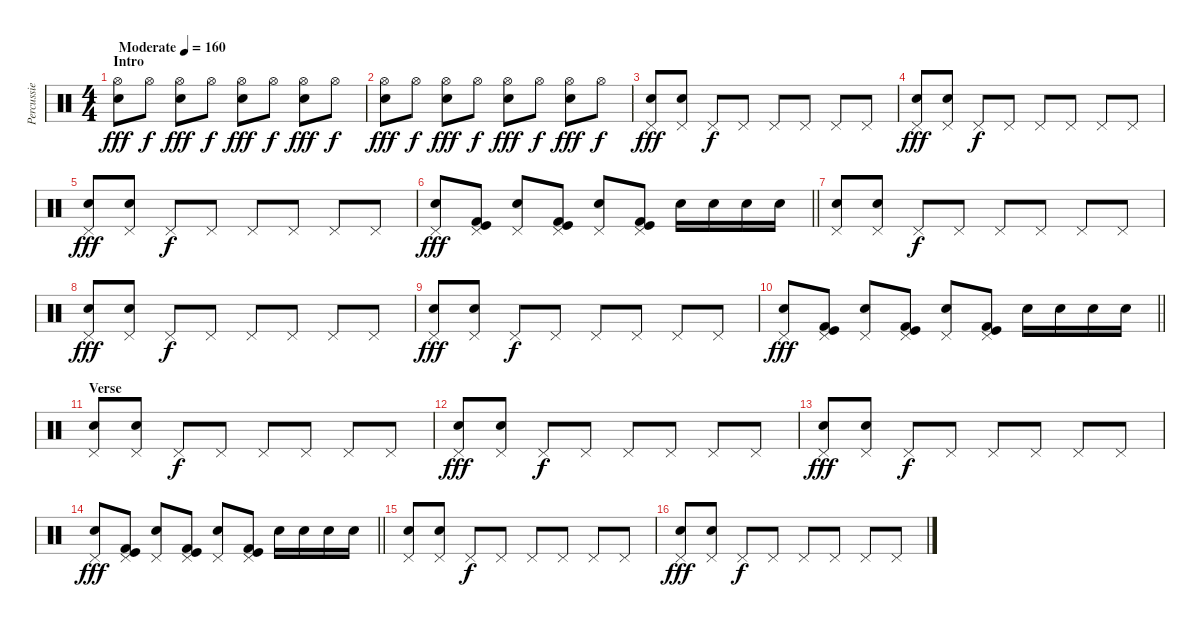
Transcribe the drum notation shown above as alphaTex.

\track ("Percussie" "Percussie") {instrument percussion}
\staff {score}
\articulation defaults
\ts (4 4)
\section ("" "Intro")
\tempo (160 "Moderate")
\clef neutral
\ks c
("Hi-Hat (open)" "Snare (hit) 2").8{dy fff} "Hi-Hat (open)".8{dy f} ("Hi-Hat (open)" "Snare (hit) 2").8{dy fff} "Hi-Hat (open)".8{dy f} ("Hi-Hat (open)" "Snare (hit) 2").8{dy fff} "Hi-Hat (open)".8{dy f} ("Hi-Hat (open)" "Snare (hit) 2").8{dy fff} "Hi-Hat (open)".8{dy f} |
("Hi-Hat (open)" "Snare (hit) 2").8{dy fff} "Hi-Hat (open)".8{dy f} ("Hi-Hat (open)" "Snare (hit) 2").8{dy fff} "Hi-Hat (open)".8{dy f} ("Hi-Hat (open)" "Snare (hit) 2").8{dy fff} "Hi-Hat (open)".8{dy f} ("Hi-Hat (open)" "Snare (hit) 2").8{dy fff} "Hi-Hat (open)".8{dy f} |
("Pedal Hi-Hat (hit)" "Snare (hit) 2").8{dy fff} ("Pedal Hi-Hat (hit)" "Snare (hit) 2").8 "Pedal Hi-Hat (hit)".8{dy f} "Pedal Hi-Hat (hit)".8 "Pedal Hi-Hat (hit)".8 "Pedal Hi-Hat (hit)".8 "Pedal Hi-Hat (hit)".8 "Pedal Hi-Hat (hit)".8 |
("Pedal Hi-Hat (hit)" "Snare (hit) 2").8{dy fff} ("Pedal Hi-Hat (hit)" "Snare (hit) 2").8 "Pedal Hi-Hat (hit)".8{dy f} "Pedal Hi-Hat (hit)".8 "Pedal Hi-Hat (hit)".8 "Pedal Hi-Hat (hit)".8 "Pedal Hi-Hat (hit)".8 "Pedal Hi-Hat (hit)".8 |
("Pedal Hi-Hat (hit)" "Snare (hit) 2").8{dy fff} ("Pedal Hi-Hat (hit)" "Snare (hit) 2").8 "Pedal Hi-Hat (hit)".8{dy f} "Pedal Hi-Hat (hit)".8 "Pedal Hi-Hat (hit)".8 "Pedal Hi-Hat (hit)".8 "Pedal Hi-Hat (hit)".8 "Pedal Hi-Hat (hit)".8 |
\barLineRight lightlight
("Pedal Hi-Hat (hit)" "Snare (hit) 2").8{dy fff} ("Pedal Hi-Hat (hit)" "Kick (hit)" "Kick (hit) 2").8 ("Pedal Hi-Hat (hit)" "Snare (hit) 2").8 ("Pedal Hi-Hat (hit)" "Kick (hit)" "Kick (hit) 2").8 ("Pedal Hi-Hat (hit)" "Snare (hit) 2").8 ("Pedal Hi-Hat (hit)" "Kick (hit)" "Kick (hit) 2").8 "Snare (hit) 2".16 "Snare (hit) 2".16 "Snare (hit) 2".16 "Snare (hit) 2".16 |
("Pedal Hi-Hat (hit)" "Snare (hit) 2").8 ("Pedal Hi-Hat (hit)" "Snare (hit) 2").8 "Pedal Hi-Hat (hit)".8{dy f} "Pedal Hi-Hat (hit)".8 "Pedal Hi-Hat (hit)".8 "Pedal Hi-Hat (hit)".8 "Pedal Hi-Hat (hit)".8 "Pedal Hi-Hat (hit)".8 |
("Pedal Hi-Hat (hit)" "Snare (hit) 2").8{dy fff} ("Pedal Hi-Hat (hit)" "Snare (hit) 2").8 "Pedal Hi-Hat (hit)".8{dy f} "Pedal Hi-Hat (hit)".8 "Pedal Hi-Hat (hit)".8 "Pedal Hi-Hat (hit)".8 "Pedal Hi-Hat (hit)".8 "Pedal Hi-Hat (hit)".8 |
("Pedal Hi-Hat (hit)" "Snare (hit) 2").8{dy fff} ("Pedal Hi-Hat (hit)" "Snare (hit) 2").8 "Pedal Hi-Hat (hit)".8{dy f} "Pedal Hi-Hat (hit)".8 "Pedal Hi-Hat (hit)".8 "Pedal Hi-Hat (hit)".8 "Pedal Hi-Hat (hit)".8 "Pedal Hi-Hat (hit)".8 |
\barLineRight lightlight
("Pedal Hi-Hat (hit)" "Snare (hit) 2").8{dy fff} ("Pedal Hi-Hat (hit)" "Kick (hit)" "Kick (hit) 2").8 ("Pedal Hi-Hat (hit)" "Snare (hit) 2").8 ("Pedal Hi-Hat (hit)" "Kick (hit)" "Kick (hit) 2").8 ("Pedal Hi-Hat (hit)" "Snare (hit) 2").8 ("Pedal Hi-Hat (hit)" "Kick (hit)" "Kick (hit) 2").8 "Snare (hit) 2".16 "Snare (hit) 2".16 "Snare (hit) 2".16 "Snare (hit) 2".16 |
\section ("" "Verse")
("Pedal Hi-Hat (hit)" "Snare (hit) 2").8 ("Pedal Hi-Hat (hit)" "Snare (hit) 2").8 "Pedal Hi-Hat (hit)".8{dy f} "Pedal Hi-Hat (hit)".8 "Pedal Hi-Hat (hit)".8 "Pedal Hi-Hat (hit)".8 "Pedal Hi-Hat (hit)".8 "Pedal Hi-Hat (hit)".8 |
("Pedal Hi-Hat (hit)" "Snare (hit) 2").8{dy fff} ("Pedal Hi-Hat (hit)" "Snare (hit) 2").8 "Pedal Hi-Hat (hit)".8{dy f} "Pedal Hi-Hat (hit)".8 "Pedal Hi-Hat (hit)".8 "Pedal Hi-Hat (hit)".8 "Pedal Hi-Hat (hit)".8 "Pedal Hi-Hat (hit)".8 |
("Pedal Hi-Hat (hit)" "Snare (hit) 2").8{dy fff} ("Pedal Hi-Hat (hit)" "Snare (hit) 2").8 "Pedal Hi-Hat (hit)".8{dy f} "Pedal Hi-Hat (hit)".8 "Pedal Hi-Hat (hit)".8 "Pedal Hi-Hat (hit)".8 "Pedal Hi-Hat (hit)".8 "Pedal Hi-Hat (hit)".8 |
\barLineRight lightlight
("Pedal Hi-Hat (hit)" "Snare (hit) 2").8{dy fff} ("Pedal Hi-Hat (hit)" "Kick (hit)" "Kick (hit) 2").8 ("Pedal Hi-Hat (hit)" "Snare (hit) 2").8 ("Pedal Hi-Hat (hit)" "Kick (hit)" "Kick (hit) 2").8 ("Pedal Hi-Hat (hit)" "Snare (hit) 2").8 ("Pedal Hi-Hat (hit)" "Kick (hit)" "Kick (hit) 2").8 "Snare (hit) 2".16 "Snare (hit) 2".16 "Snare (hit) 2".16 "Snare (hit) 2".16 |
("Pedal Hi-Hat (hit)" "Snare (hit) 2").8 ("Pedal Hi-Hat (hit)" "Snare (hit) 2").8 "Pedal Hi-Hat (hit)".8{dy f} "Pedal Hi-Hat (hit)".8 "Pedal Hi-Hat (hit)".8 "Pedal Hi-Hat (hit)".8 "Pedal Hi-Hat (hit)".8 "Pedal Hi-Hat (hit)".8 |
("Pedal Hi-Hat (hit)" "Snare (hit) 2").8{dy fff} ("Pedal Hi-Hat (hit)" "Snare (hit) 2").8 "Pedal Hi-Hat (hit)".8{dy f} "Pedal Hi-Hat (hit)".8 "Pedal Hi-Hat (hit)".8 "Pedal Hi-Hat (hit)".8 "Pedal Hi-Hat (hit)".8 "Pedal Hi-Hat (hit)".8
